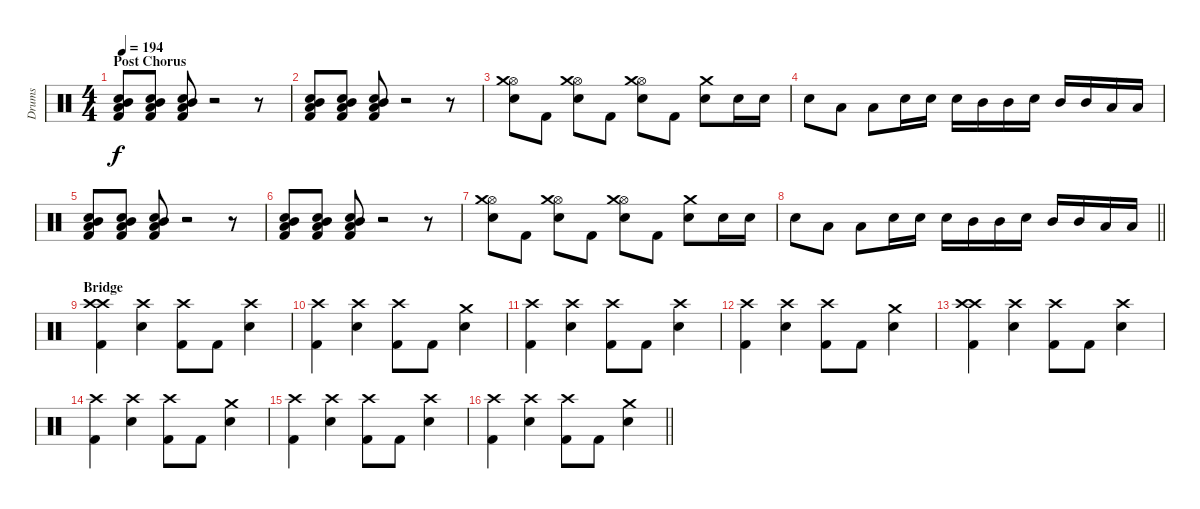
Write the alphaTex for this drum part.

\track ("Drums" "Drums") {instrument percussion}
\staff {score}
\articulation defaults
\ts (4 4)
\section ("" "Post Chorus")
\tempo 194
\clef neutral
\ks c
("Low Floor Tom (hit)" "Mid Tom (hit)" "Snare (hit) 2" "Kick (hit) 2").8{dy f volume 8} ("Low Floor Tom (hit)" "Mid Tom (hit)" "Snare (hit) 2" "Kick (hit) 2").8 ("Low Floor Tom (hit)" "Mid Tom (hit)" "Snare (hit) 2" "Kick (hit) 2").8 r.2 r.8 |
("Low Floor Tom (hit)" "Mid Tom (hit)" "Snare (hit) 2" "Kick (hit) 2").8 ("Low Floor Tom (hit)" "Mid Tom (hit)" "Snare (hit) 2" "Kick (hit) 2").8 ("Low Floor Tom (hit)" "Mid Tom (hit)" "Snare (hit) 2" "Kick (hit) 2").8 r.2 r.8 |
("Hi-Hat (open)" "Electric Snare (hit)" "Crash medium (hit)").8 "Kick (hit) 2".8 ("Hi-Hat (open)" "Electric Snare (hit)" "Crash medium (hit)").8 "Kick (hit) 2".8 ("Hi-Hat (open)" "Electric Snare (hit)" "Crash medium (hit)").8 "Kick (hit) 2".8 ("Electric Snare (hit)" "Crash medium (hit)").8 "Electric Snare (hit)".16{volume 12} "Electric Snare (hit)".16 |
"Electric Snare (hit)".8 "Low Floor Tom (hit)".8 "Low Floor Tom (hit)".8 "Electric Snare (hit)".16 "Electric Snare (hit)".16 "Electric Snare (hit)".16 "Mid Tom (hit)".16 "Mid Tom (hit)".16 "Electric Snare (hit)".16 "Mid Tom (hit)".16 "Mid Tom (hit)".16 "Low Floor Tom (hit)".16 "Low Floor Tom (hit)".16 |
("Low Floor Tom (hit)" "Mid Tom (hit)" "Snare (hit) 2" "Kick (hit) 2").8{volume 8} ("Low Floor Tom (hit)" "Mid Tom (hit)" "Snare (hit) 2" "Kick (hit) 2").8 ("Low Floor Tom (hit)" "Mid Tom (hit)" "Snare (hit) 2" "Kick (hit) 2").8 r.2 r.8 |
("Low Floor Tom (hit)" "Mid Tom (hit)" "Snare (hit) 2" "Kick (hit) 2").8 ("Low Floor Tom (hit)" "Mid Tom (hit)" "Snare (hit) 2" "Kick (hit) 2").8 ("Low Floor Tom (hit)" "Mid Tom (hit)" "Snare (hit) 2" "Kick (hit) 2").8 r.2 r.8 |
("Hi-Hat (open)" "Electric Snare (hit)" "Crash medium (hit)").8 "Kick (hit) 2".8 ("Hi-Hat (open)" "Electric Snare (hit)" "Crash medium (hit)").8 "Kick (hit) 2".8 ("Hi-Hat (open)" "Electric Snare (hit)" "Crash medium (hit)").8 "Kick (hit) 2".8 ("Electric Snare (hit)" "Crash medium (hit)").8 "Electric Snare (hit)".16{volume 12} "Electric Snare (hit)".16 |
\barLineRight lightlight "Electric Snare (hit)".8 "Low Floor Tom (hit)".8 "Low Floor Tom (hit)".8 "Electric Snare (hit)".16 "Electric Snare (hit)".16 "Electric Snare (hit)".16 "Mid Tom (hit)".16 "Mid Tom (hit)".16 "Electric Snare (hit)".16 "Mid Tom (hit)".16 "Mid Tom (hit)".16 "Low Floor Tom (hit)".16 "Low Floor Tom (hit)".16
|
\section ("" "Bridge")
("Crash high (hit)" "Crash high (hit)" "Kick (hit) 2").4{volume 8} ("Crash high (hit)" "Electric Snare (hit)").4 ("Crash high (hit)" "Kick (hit) 2").8 "Kick (hit) 2".8 ("Crash high (hit)" "Electric Snare (hit)").4 |
("Crash high (hit)" "Kick (hit) 2").4 ("Crash high (hit)" "Electric Snare (hit)").4 ("Crash high (hit)" "Kick (hit) 2").8 "Kick (hit) 2".8 ("Crash medium (hit)" "Electric Snare (hit)").4 |
("Crash high (hit)" "Kick (hit) 2").4 ("Crash high (hit)" "Electric Snare (hit)").4 ("Crash high (hit)" "Kick (hit) 2").8 "Kick (hit) 2".8 ("Crash high (hit)" "Electric Snare (hit)").4 |
("Crash high (hit)" "Kick (hit) 2").4 ("Crash high (hit)" "Electric Snare (hit)").4 ("Crash high (hit)" "Kick (hit) 2").8 "Kick (hit) 2".8 ("Crash medium (hit)" "Electric Snare (hit)").4 |
("Crash high (hit)" "Crash high (hit)" "Kick (hit) 2").4 ("Crash high (hit)" "Electric Snare (hit)").4 ("Crash high (hit)" "Kick (hit) 2").8 "Kick (hit) 2".8 ("Crash high (hit)" "Electric Snare (hit)").4 |
("Crash high (hit)" "Kick (hit) 2").4 ("Crash high (hit)" "Electric Snare (hit)").4 ("Crash high (hit)" "Kick (hit) 2").8 "Kick (hit) 2".8 ("Crash medium (hit)" "Electric Snare (hit)").4 |
("Crash high (hit)" "Kick (hit) 2").4 ("Crash high (hit)" "Electric Snare (hit)").4 ("Crash high (hit)" "Kick (hit) 2").8 "Kick (hit) 2".8 ("Crash high (hit)" "Electric Snare (hit)").4 |
\barLineRight lightlight
("Crash high (hit)" "Kick (hit) 2").4 ("Crash high (hit)" "Electric Snare (hit)").4 ("Crash high (hit)" "Kick (hit) 2").8 "Kick (hit) 2".8 ("Crash medium (hit)" "Electric Snare (hit)").4
